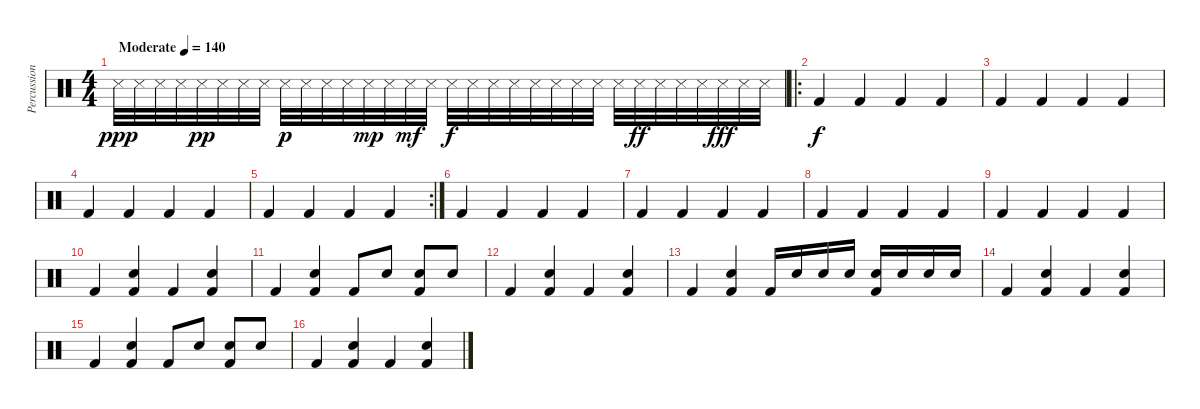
\track ("Percussion" "Percussion") {instrument percussion}
\staff {score}
\articulation defaults
\ts (4 4)
\tempo (140 "Moderate")
\clef neutral
\ks c "Metronome (hit)".32{dy ppp} "Metronome (hit)".32 "Metronome (hit)".32 "Metronome (hit)".32 "Metronome (hit)".32{dy pp} "Metronome (hit)".32 "Metronome (hit)".32 "Metronome (hit)".32 "Metronome (hit)".32{dy p} "Metronome (hit)".32 "Metronome (hit)".32 "Metronome (hit)".32 "Metronome (hit)".32{dy mp} "Metronome (hit)".32 "Metronome (hit)".32{dy mf} "Metronome (hit)".32 "Metronome (hit)".32{dy f} "Metronome (hit)".32 "Metronome (hit)".32 "Metronome (hit)".32 "Metronome (hit)".32 "Metronome (hit)".32 "Metronome (hit)".32 "Metronome (hit)".32 "Metronome (hit)".32 "Metronome (hit)".32{dy ff} "Metronome (hit)".32 "Metronome (hit)".32 "Metronome (hit)".32 "Metronome (hit)".32{dy fff} "Metronome (hit)".32 "Metronome (hit)".32
|
\ro "Kick (hit) 2".4{dy f} "Kick (hit) 2".4 "Kick (hit) 2".4 "Kick (hit) 2".4
|
"Kick (hit) 2".4 "Kick (hit) 2".4 "Kick (hit) 2".4 "Kick (hit) 2".4 |
"Kick (hit) 2".4 "Kick (hit) 2".4 "Kick (hit) 2".4 "Kick (hit) 2".4 |
\rc 2 "Kick (hit) 2".4 "Kick (hit) 2".4 "Kick (hit) 2".4 "Kick (hit) 2".4
|
"Kick (hit) 2".4 "Kick (hit) 2".4 "Kick (hit) 2".4 "Kick (hit) 2".4 |
"Kick (hit) 2".4 "Kick (hit) 2".4 "Kick (hit) 2".4 "Kick (hit) 2".4 |
"Kick (hit) 2".4 "Kick (hit) 2".4 "Kick (hit) 2".4 "Kick (hit) 2".4 |
"Kick (hit) 2".4 "Kick (hit) 2".4 "Kick (hit) 2".4 "Kick (hit) 2".4 |
"Kick (hit) 2".4 ("Hand Clap (hit)" "Kick (hit) 2").4 "Kick (hit) 2".4 ("Hand Clap (hit)" "Kick (hit) 2").4 |
"Kick (hit) 2".4 ("Hand Clap (hit)" "Kick (hit) 2").4 "Kick (hit) 2".8 "Hand Clap (hit)".8 ("Hand Clap (hit)" "Kick (hit) 2").8 "Hand Clap (hit)".8 |
"Kick (hit) 2".4 ("Hand Clap (hit)" "Kick (hit) 2").4 "Kick (hit) 2".4 ("Hand Clap (hit)" "Kick (hit) 2").4 |
"Kick (hit) 2".4 ("Hand Clap (hit)" "Kick (hit) 2").4 "Kick (hit) 2".16 "Hand Clap (hit)".16 "Hand Clap (hit)".16 "Hand Clap (hit)".16 ("Hand Clap (hit)" "Kick (hit) 2").16 "Hand Clap (hit)".16 "Hand Clap (hit)".16 "Hand Clap (hit)".16 |
"Kick (hit) 2".4 ("Hand Clap (hit)" "Kick (hit) 2").4 "Kick (hit) 2".4 ("Hand Clap (hit)" "Kick (hit) 2").4 |
"Kick (hit) 2".4 ("Hand Clap (hit)" "Kick (hit) 2").4 "Kick (hit) 2".8 "Hand Clap (hit)".8 ("Hand Clap (hit)" "Kick (hit) 2").8 "Hand Clap (hit)".8 |
"Kick (hit) 2".4 ("Hand Clap (hit)" "Kick (hit) 2").4 "Kick (hit) 2".4 ("Hand Clap (hit)" "Kick (hit) 2").4
